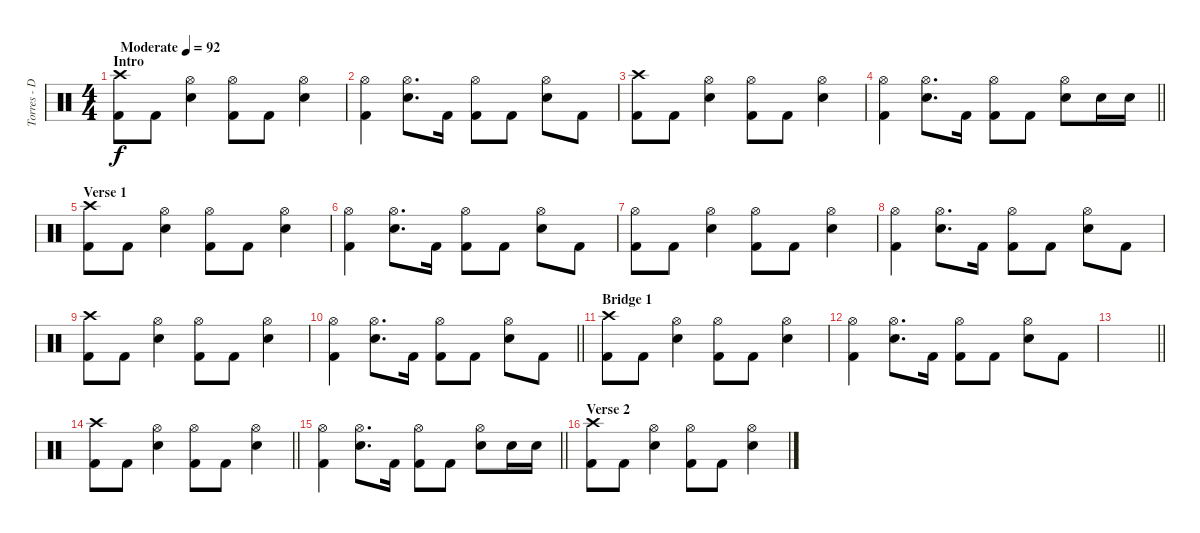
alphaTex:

\track ("Torres - Drums" "Torres - D") {instrument percussion}
\staff {score}
\articulation defaults
\ts (4 4)
\section ("" "Intro")
\tempo (92 "Moderate")
\clef neutral
\ks c
("Kick (hit) 2" "Crash high (hit)").8{dy f} "Kick (hit) 2".8 ("Electric Snare (hit)" "Hi-Hat (open)").4 ("Kick (hit) 2" "Hi-Hat (open)").8 "Kick (hit) 2".8 ("Electric Snare (hit)" "Hi-Hat (open)").4 |
("Kick (hit) 2" "Hi-Hat (open)").4 ("Electric Snare (hit)" "Hi-Hat (open)").8{d} "Kick (hit) 2".16 ("Kick (hit) 2" "Hi-Hat (open)").8 "Kick (hit) 2".8 ("Electric Snare (hit)" "Hi-Hat (open)").8 "Kick (hit) 2".8 |
("Kick (hit) 2" "Crash high (hit)").8 "Kick (hit) 2".8 ("Electric Snare (hit)" "Hi-Hat (open)").4 ("Kick (hit) 2" "Hi-Hat (open)").8 "Kick (hit) 2".8 ("Electric Snare (hit)" "Hi-Hat (open)").4 |
\barLineRight lightlight
("Kick (hit) 2" "Hi-Hat (open)").4 ("Electric Snare (hit)" "Hi-Hat (open)").8{d} "Kick (hit) 2".16 ("Kick (hit) 2" "Hi-Hat (open)").8 "Kick (hit) 2".8 ("Electric Snare (hit)" "Hi-Hat (open)").8 "Electric Snare (hit)".16 "Electric Snare (hit)".16 |
\section ("" "Verse 1")
("Kick (hit) 2" "Crash high (hit)").8 "Kick (hit) 2".8 ("Electric Snare (hit)" "Hi-Hat (open)").4 ("Kick (hit) 2" "Hi-Hat (open)").8 "Kick (hit) 2".8 ("Electric Snare (hit)" "Hi-Hat (open)").4 |
("Kick (hit) 2" "Hi-Hat (open)").4 ("Electric Snare (hit)" "Hi-Hat (open)").8{d} "Kick (hit) 2".16 ("Kick (hit) 2" "Hi-Hat (open)").8 "Kick (hit) 2".8 ("Electric Snare (hit)" "Hi-Hat (open)").8 "Kick (hit) 2".8 |
("Kick (hit) 2" "Hi-Hat (open)").8 "Kick (hit) 2".8 ("Electric Snare (hit)" "Hi-Hat (open)").4 ("Kick (hit) 2" "Hi-Hat (open)").8 "Kick (hit) 2".8 ("Electric Snare (hit)" "Hi-Hat (open)").4 |
("Kick (hit) 2" "Hi-Hat (open)").4 ("Electric Snare (hit)" "Hi-Hat (open)").8{d} "Kick (hit) 2".16 ("Kick (hit) 2" "Hi-Hat (open)").8 "Kick (hit) 2".8 ("Electric Snare (hit)" "Hi-Hat (open)").8 "Kick (hit) 2".8 |
("Kick (hit) 2" "Crash high (hit)").8 "Kick (hit) 2".8 ("Electric Snare (hit)" "Hi-Hat (open)").4 ("Kick (hit) 2" "Hi-Hat (open)").8 "Kick (hit) 2".8 ("Electric Snare (hit)" "Hi-Hat (open)").4 |
\barLineRight lightlight
("Kick (hit) 2" "Hi-Hat (open)").4 ("Electric Snare (hit)" "Hi-Hat (open)").8{d} "Kick (hit) 2".16 ("Kick (hit) 2" "Hi-Hat (open)").8 "Kick (hit) 2".8 ("Electric Snare (hit)" "Hi-Hat (open)").8 "Kick (hit) 2".8 |
\section ("" "Bridge 1")
("Kick (hit) 2" "Crash high (hit)").8 "Kick (hit) 2".8 ("Electric Snare (hit)" "Hi-Hat (open)").4 ("Kick (hit) 2" "Hi-Hat (open)").8 "Kick (hit) 2".8 ("Electric Snare (hit)" "Hi-Hat (open)").4 |
("Kick (hit) 2" "Hi-Hat (open)").4 ("Electric Snare (hit)" "Hi-Hat (open)").8{d} "Kick (hit) 2".16 ("Kick (hit) 2" "Hi-Hat (open)").8 "Kick (hit) 2".8 ("Electric Snare (hit)" "Hi-Hat (open)").8 "Kick (hit) 2".8 |
\barLineRight lightlight
|
\section ("" "")
\barLineRight lightlight
("Kick (hit) 2" "Crash high (hit)").8 "Kick (hit) 2".8 ("Electric Snare (hit)" "Hi-Hat (open)").4 ("Kick (hit) 2" "Hi-Hat (open)").8 "Kick (hit) 2".8 ("Electric Snare (hit)" "Hi-Hat (open)").4 |
\section ("" "")
\barLineRight lightlight
("Kick (hit) 2" "Hi-Hat (open)").4 ("Electric Snare (hit)" "Hi-Hat (open)").8{d} "Kick (hit) 2".16 ("Kick (hit) 2" "Hi-Hat (open)").8 "Kick (hit) 2".8 ("Electric Snare (hit)" "Hi-Hat (open)").8 "Electric Snare (hit)".16 "Electric Snare (hit)".16 |
\section ("" "Verse 2")
("Kick (hit) 2" "Crash high (hit)").8 "Kick (hit) 2".8 ("Electric Snare (hit)" "Hi-Hat (open)").4 ("Kick (hit) 2" "Hi-Hat (open)").8 "Kick (hit) 2".8 ("Electric Snare (hit)" "Hi-Hat (open)").4
